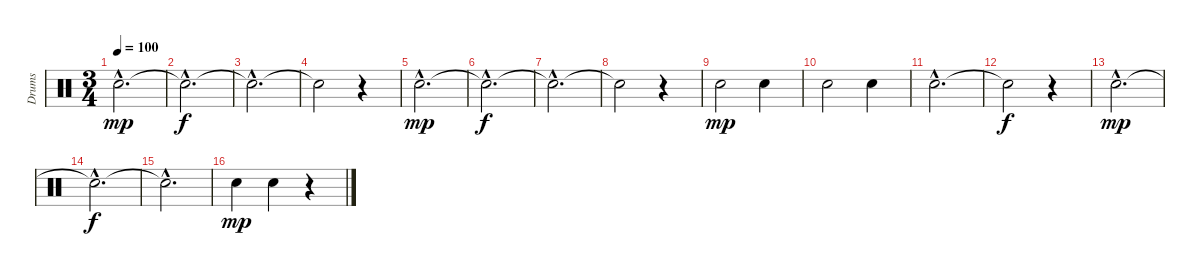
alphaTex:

\track ("Drums" "Drums") {instrument percussion}
\staff {score}
\articulation defaults
\ts (3 4)
\tempo 100
\clef neutral
\ks c "Electric Snare (hit)"{tr (40 64) hac}.2{d dy mp}
|
"Snare (hit)"{hac t}.2{d dy f} |
"Snare (hit)"{hac t}.2{d} |
"Snare (hit)"{t}.2 r.4 |
"Electric Snare (hit)"{tr (40 64) hac}.2{d dy mp} |
"Snare (hit)"{hac t}.2{d dy f} |
"Snare (hit)"{hac t}.2{d} |
"Snare (hit)"{t}.2 r.4 |
"Electric Snare (hit)"{tr (40 64)}.2{dy mp} "Electric Snare (hit)"{tr (40 64)}.4 |
"Electric Snare (hit)"{tr (40 64)}.2 "Electric Snare (hit)"{tr (40 64)}.4 |
"Electric Snare (hit)"{tr (40 64) hac}.2{d} |
"Snare (hit)"{t}.2{dy f} r.4 |
"Electric Snare (hit)"{tr (40 64) hac}.2{d dy mp} |
"Snare (hit)"{hac t}.2{d dy f} |
"Snare (hit)"{hac t}.2{d} |
"Electric Snare (hit)"{tr (40 64)}.4{dy mp} "Electric Snare (hit)"{tr (40 64)}.4 r.4
